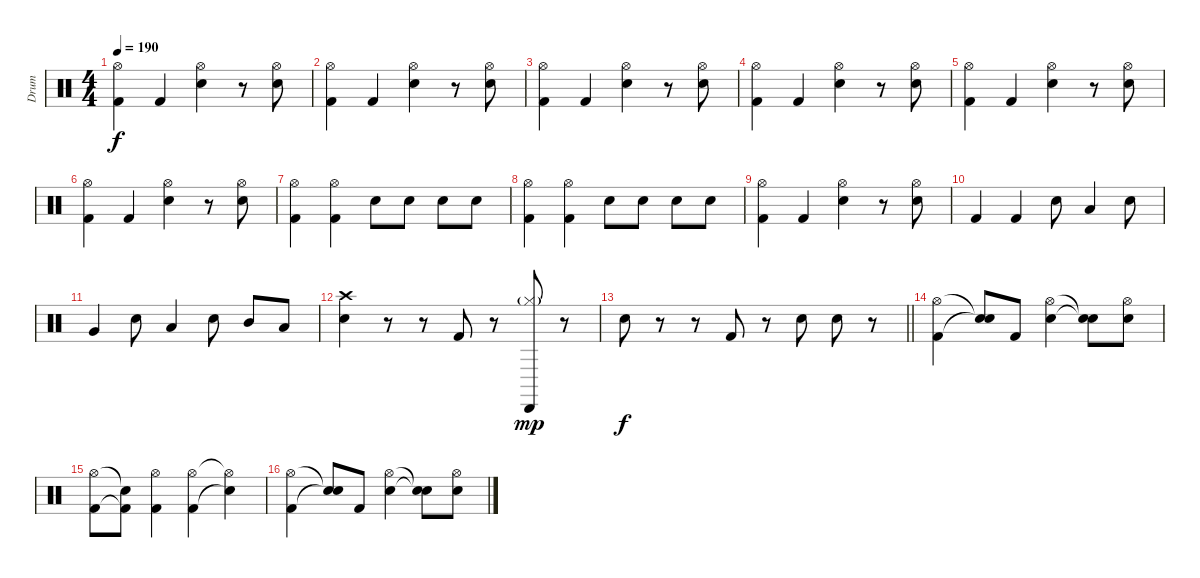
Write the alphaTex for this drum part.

\track ("Drum" "Drum") {instrument percussion}
\staff {score}
\articulation defaults
\ts (4 4)
\tempo 190
\clef neutral
\ks c
("Kick (hit) 2" "Hi-Hat (open)").4{dy f} "Kick (hit) 2".4 ("Snare (hit) 2" "Hi-Hat (open)").4 r.8 ("Snare (hit) 2" "Hi-Hat (open)").8 |
("Kick (hit) 2" "Hi-Hat (open)").4 "Kick (hit) 2".4 ("Snare (hit) 2" "Hi-Hat (open)").4 r.8 ("Snare (hit) 2" "Hi-Hat (open)").8 |
("Kick (hit) 2" "Hi-Hat (open)").4 "Kick (hit) 2".4 ("Snare (hit) 2" "Hi-Hat (open)").4 r.8 ("Snare (hit) 2" "Hi-Hat (open)").8 |
("Kick (hit) 2" "Hi-Hat (open)").4 "Kick (hit) 2".4 ("Snare (hit) 2" "Hi-Hat (open)").4 r.8 ("Snare (hit) 2" "Hi-Hat (open)").8 |
("Kick (hit) 2" "Hi-Hat (open)").4 "Kick (hit) 2".4 ("Snare (hit) 2" "Hi-Hat (open)").4 r.8 ("Snare (hit) 2" "Hi-Hat (open)").8 |
("Kick (hit) 2" "Hi-Hat (open)").4 "Kick (hit) 2".4 ("Snare (hit) 2" "Hi-Hat (open)").4 r.8 ("Snare (hit) 2" "Hi-Hat (open)").8 |
("Kick (hit) 2" "Hi-Hat (open)").4 ("Kick (hit) 2" "Hi-Hat (open)").4 "Snare (hit) 2".8 "Snare (hit) 2".8 "Snare (hit) 2".8 "Snare (hit) 2".8 |
("Kick (hit) 2" "Hi-Hat (open)").4 ("Kick (hit) 2" "Hi-Hat (open)").4 "Snare (hit) 2".8 "Snare (hit) 2".8 "Snare (hit) 2".8 "Snare (hit) 2".8 |
("Kick (hit) 2" "Hi-Hat (open)").4 "Kick (hit) 2".4 ("Snare (hit) 2" "Hi-Hat (open)").4 r.8 ("Snare (hit) 2" "Hi-Hat (open)").8 |
"Kick (hit) 2".4 "Kick (hit) 2".4 "Snare (hit) 2".8 "Low Tom (hit)".4 "Snare (hit) 2".8 |
"Very Low Tom (hit)".4 "Snare (hit) 2".8 "Low Floor Tom (hit)".4 "Snare (hit) 2".8 "Mid Tom (hit)".8 "Low Tom (hit)".8 |
("Snare (hit) 2" "Crash high (hit)").4 r.8 r.8 "Kick (hit) 2".8 r.8 ("Hi-Hat (closed)"{g} "Cabasa (hit)").8{dy mp} r.8 |
\barLineRight lightlight "Snare (hit) 2".8{dy f}
r.8 r.8 "Kick (hit) 2".8 r.8 "Snare (hit) 2".8 "Snare (hit) 2".8 r.8 |
\section ("" "")
("Kick (hit) 2" "Hi-Hat (open)").4 ("Snare (hit)"{t} "Snare (hit)"{t}).8 "Kick (hit) 2".8 ("Snare (hit) 2" "Hi-Hat (open)").4 ("Snare (hit)"{t} "Snare (hit)"{t}).8 ("Snare (hit) 2" "Hi-Hat (open)").8 |
("Kick (hit) 2" "Hi-Hat (open)").8 ("Kick (hit) 2"{t} "Snare (hit)"{t}).8 ("Kick (hit) 2" "Hi-Hat (open)").4 ("Kick (hit) 2" "Hi-Hat (open)").4 ("Snare (hit) 2"{t} "Hi-Hat (open)"{t}).4 |
("Kick (hit) 2" "Hi-Hat (open)").4 ("Snare (hit)"{t} "Snare (hit)"{t}).8 "Kick (hit) 2".8 ("Snare (hit) 2" "Hi-Hat (open)").4 ("Snare (hit)"{t} "Snare (hit)"{t}).8 ("Snare (hit) 2" "Hi-Hat (open)").8
